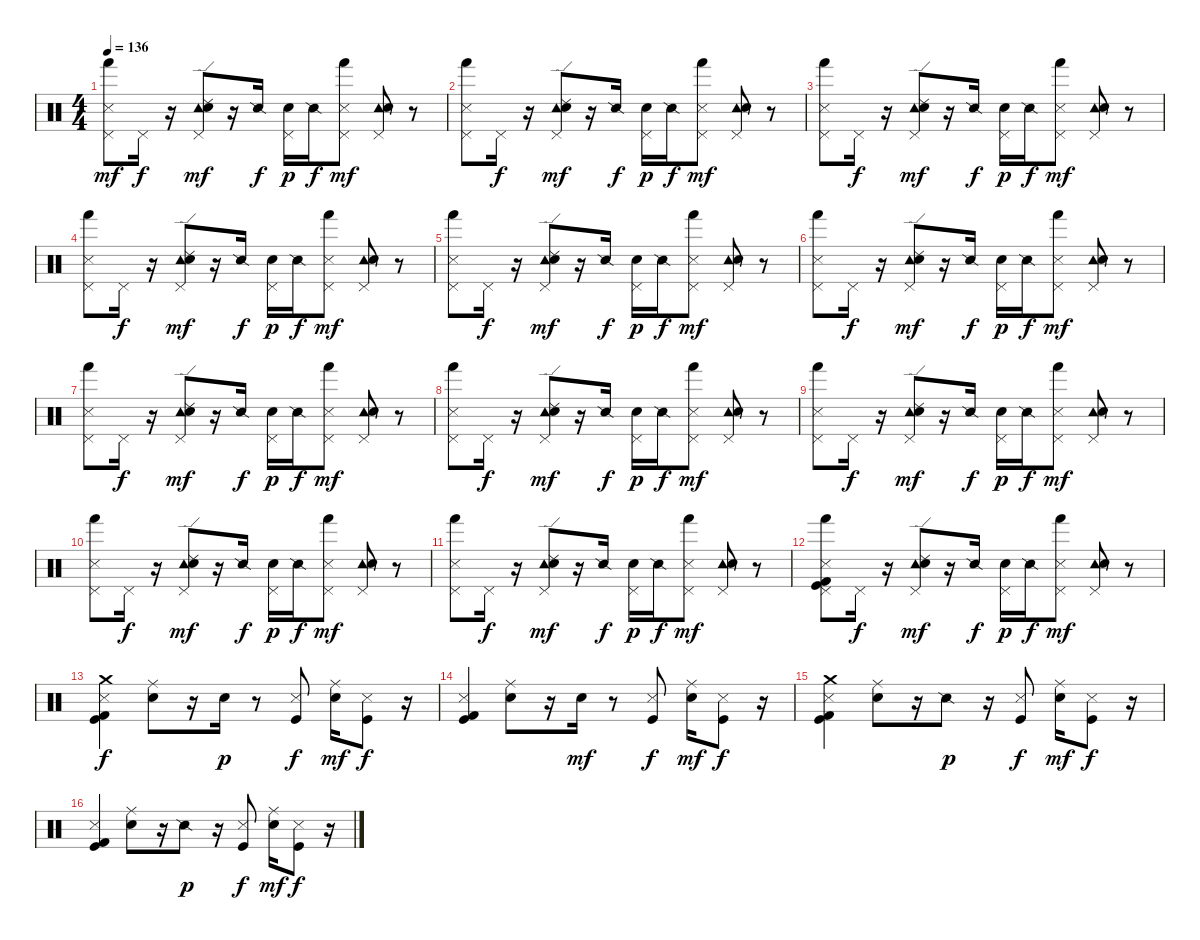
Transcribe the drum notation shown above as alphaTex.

\track "" {instrument percussion}
\staff {score}
\articulation defaults
\ts (4 4)
\tempo 136
\clef neutral
\ks c
("Hand (hit)" "Pedal Hi-Hat (hit)" "Metronome (hit)").8{dy mf} "Pedal Hi-Hat (hit)".16{dy f} r.16 ("Tambourine (hit)" "Metronome (bell)" "Ride (edge) 2" "Pedal Hi-Hat (hit)").8{dy mf} r.16 "Snare (side stick) 2".16{dy f} ("Metronome (bell)" "Pedal Hi-Hat (hit)").16{dy p} "Snare (side stick) 2".16{dy f} ("Metronome (hit)" "Hand (hit)" "Pedal Hi-Hat (hit)").8{dy mf} ("Tambourine (hit)" "Metronome (bell)" "Pedal Hi-Hat (hit)").8 r.8 |
("Hand (hit)" "Pedal Hi-Hat (hit)" "Metronome (hit)").8 "Pedal Hi-Hat (hit)".16{dy f} r.16 ("Tambourine (hit)" "Metronome (bell)" "Ride (edge) 2" "Pedal Hi-Hat (hit)").8{dy mf} r.16 "Snare (side stick) 2".16{dy f} ("Metronome (bell)" "Pedal Hi-Hat (hit)").16{dy p} "Snare (side stick) 2".16{dy f} ("Metronome (hit)" "Hand (hit)" "Pedal Hi-Hat (hit)").8{dy mf} ("Tambourine (hit)" "Metronome (bell)" "Pedal Hi-Hat (hit)").8 r.8 |
("Hand (hit)" "Pedal Hi-Hat (hit)" "Metronome (hit)").8 "Pedal Hi-Hat (hit)".16{dy f} r.16 ("Tambourine (hit)" "Metronome (bell)" "Ride (edge) 2" "Pedal Hi-Hat (hit)").8{dy mf} r.16 "Snare (side stick) 2".16{dy f} ("Metronome (bell)" "Pedal Hi-Hat (hit)").16{dy p} "Snare (side stick) 2".16{dy f} ("Metronome (hit)" "Hand (hit)" "Pedal Hi-Hat (hit)").8{dy mf} ("Tambourine (hit)" "Metronome (bell)" "Pedal Hi-Hat (hit)").8 r.8 |
("Hand (hit)" "Pedal Hi-Hat (hit)" "Metronome (hit)").8 "Pedal Hi-Hat (hit)".16{dy f} r.16 ("Tambourine (hit)" "Metronome (bell)" "Ride (edge) 2" "Pedal Hi-Hat (hit)").8{dy mf} r.16 "Snare (side stick) 2".16{dy f} ("Metronome (bell)" "Pedal Hi-Hat (hit)").16{dy p} "Snare (side stick) 2".16{dy f} ("Metronome (hit)" "Hand (hit)" "Pedal Hi-Hat (hit)").8{dy mf} ("Tambourine (hit)" "Metronome (bell)" "Pedal Hi-Hat (hit)").8 r.8 |
("Hand (hit)" "Pedal Hi-Hat (hit)" "Metronome (hit)").8 "Pedal Hi-Hat (hit)".16{dy f} r.16 ("Tambourine (hit)" "Metronome (bell)" "Ride (edge) 2" "Pedal Hi-Hat (hit)").8{dy mf} r.16 "Snare (side stick) 2".16{dy f} ("Metronome (bell)" "Pedal Hi-Hat (hit)").16{dy p} "Snare (side stick) 2".16{dy f} ("Metronome (hit)" "Hand (hit)" "Pedal Hi-Hat (hit)").8{dy mf} ("Tambourine (hit)" "Metronome (bell)" "Pedal Hi-Hat (hit)").8 r.8 |
("Hand (hit)" "Pedal Hi-Hat (hit)" "Metronome (hit)").8 "Pedal Hi-Hat (hit)".16{dy f} r.16 ("Tambourine (hit)" "Metronome (bell)" "Ride (edge) 2" "Pedal Hi-Hat (hit)").8{dy mf} r.16 "Snare (side stick) 2".16{dy f} ("Metronome (bell)" "Pedal Hi-Hat (hit)").16{dy p} "Snare (side stick) 2".16{dy f} ("Metronome (hit)" "Hand (hit)" "Pedal Hi-Hat (hit)").8{dy mf} ("Tambourine (hit)" "Metronome (bell)" "Pedal Hi-Hat (hit)").8 r.8 |
("Hand (hit)" "Pedal Hi-Hat (hit)" "Metronome (hit)").8 "Pedal Hi-Hat (hit)".16{dy f} r.16 ("Tambourine (hit)" "Metronome (bell)" "Ride (edge) 2" "Pedal Hi-Hat (hit)").8{dy mf} r.16 "Snare (side stick) 2".16{dy f} ("Metronome (bell)" "Pedal Hi-Hat (hit)").16{dy p} "Snare (side stick) 2".16{dy f} ("Metronome (hit)" "Hand (hit)" "Pedal Hi-Hat (hit)").8{dy mf} ("Tambourine (hit)" "Metronome (bell)" "Pedal Hi-Hat (hit)").8 r.8 |
("Hand (hit)" "Pedal Hi-Hat (hit)" "Metronome (hit)").8 "Pedal Hi-Hat (hit)".16{dy f} r.16 ("Tambourine (hit)" "Metronome (bell)" "Ride (edge) 2" "Pedal Hi-Hat (hit)").8{dy mf} r.16 "Snare (side stick) 2".16{dy f} ("Metronome (bell)" "Pedal Hi-Hat (hit)").16{dy p} "Snare (side stick) 2".16{dy f} ("Metronome (hit)" "Hand (hit)" "Pedal Hi-Hat (hit)").8{dy mf} ("Tambourine (hit)" "Metronome (bell)" "Pedal Hi-Hat (hit)").8 r.8 |
("Hand (hit)" "Pedal Hi-Hat (hit)" "Metronome (hit)").8 "Pedal Hi-Hat (hit)".16{dy f} r.16 ("Tambourine (hit)" "Metronome (bell)" "Ride (edge) 2" "Pedal Hi-Hat (hit)").8{dy mf} r.16 "Snare (side stick) 2".16{dy f} ("Metronome (bell)" "Pedal Hi-Hat (hit)").16{dy p} "Snare (side stick) 2".16{dy f} ("Metronome (hit)" "Hand (hit)" "Pedal Hi-Hat (hit)").8{dy mf} ("Tambourine (hit)" "Metronome (bell)" "Pedal Hi-Hat (hit)").8 r.8 |
("Hand (hit)" "Pedal Hi-Hat (hit)" "Metronome (hit)").8 "Pedal Hi-Hat (hit)".16{dy f} r.16 ("Tambourine (hit)" "Metronome (bell)" "Ride (edge) 2" "Pedal Hi-Hat (hit)").8{dy mf} r.16 "Snare (side stick) 2".16{dy f} ("Metronome (bell)" "Pedal Hi-Hat (hit)").16{dy p} "Snare (side stick) 2".16{dy f} ("Metronome (hit)" "Hand (hit)" "Pedal Hi-Hat (hit)").8{dy mf} ("Tambourine (hit)" "Metronome (bell)" "Pedal Hi-Hat (hit)").8 r.8 |
("Hand (hit)" "Pedal Hi-Hat (hit)" "Metronome (hit)").8 "Pedal Hi-Hat (hit)".16{dy f} r.16 ("Tambourine (hit)" "Metronome (bell)" "Ride (edge) 2" "Pedal Hi-Hat (hit)").8{dy mf} r.16 "Snare (side stick) 2".16{dy f} ("Metronome (bell)" "Pedal Hi-Hat (hit)").16{dy p} "Snare (side stick) 2".16{dy f} ("Metronome (hit)" "Hand (hit)" "Pedal Hi-Hat (hit)").8{dy mf} ("Tambourine (hit)" "Metronome (bell)" "Pedal Hi-Hat (hit)").8 r.8 |
("Hand (hit)" "Pedal Hi-Hat (hit)" "Kick (hit) 2" "Kick (hit)" "Metronome (hit)").8 "Pedal Hi-Hat (hit)".16{dy f} r.16 ("Tambourine (hit)" "Metronome (bell)" "Ride (edge) 2" "Pedal Hi-Hat (hit)").8{dy mf} r.16 "Snare (side stick) 2".16{dy f} ("Metronome (bell)" "Pedal Hi-Hat (hit)").16{dy p} "Snare (side stick) 2".16{dy f} ("Metronome (hit)" "Hand (hit)" "Pedal Hi-Hat (hit)").8{dy mf} ("Tambourine (hit)" "Metronome (bell)" "Pedal Hi-Hat (hit)").8 r.8 |
("Metronome (hit)" "Kick (hit) 2" "Crash medium (hit)" "Kick (hit)").4{dy f} ("Ride (middle)" "Metronome (bell)").8 r.16 "Electric Snare (hit)".16{dy p} r.8 ("Metronome (hit)" "Kick (hit)").8{dy f} ("Ride (middle)" "Electric Snare (hit)").16{dy mf} ("Metronome (hit)" "Kick (hit)").8{dy f} r.16 |
("Metronome (hit)" "Kick (hit) 2" "Kick (hit)").4 ("Ride (middle)" "Metronome (bell)").8 r.16 "Electric Snare (hit)".16{dy mf} r.8 ("Metronome (hit)" "Kick (hit)").8{dy f} ("Ride (middle)" "Electric Snare (hit)").16{dy mf} ("Metronome (hit)" "Kick (hit)").8{dy f} r.16 |
("Metronome (hit)" "Kick (hit) 2" "Crash medium (hit)" "Kick (hit)").4 ("Ride (middle)" "Metronome (bell)").8 r.16 "Snare (side stick) 2".8{dy p} r.16 ("Metronome (hit)" "Kick (hit)").8{dy f} ("Ride (middle)" "Electric Snare (hit)").16{dy mf} ("Metronome (hit)" "Kick (hit)").8{dy f} r.16 |
("Metronome (hit)" "Kick (hit) 2" "Kick (hit)").4 ("Ride (middle)" "Metronome (bell)").8 r.16 "Snare (side stick) 2".8{dy p} r.16 ("Metronome (hit)" "Kick (hit)").8{dy f} ("Ride (middle)" "Electric Snare (hit)").16{dy mf} ("Metronome (hit)" "Kick (hit)").8{dy f} r.16
